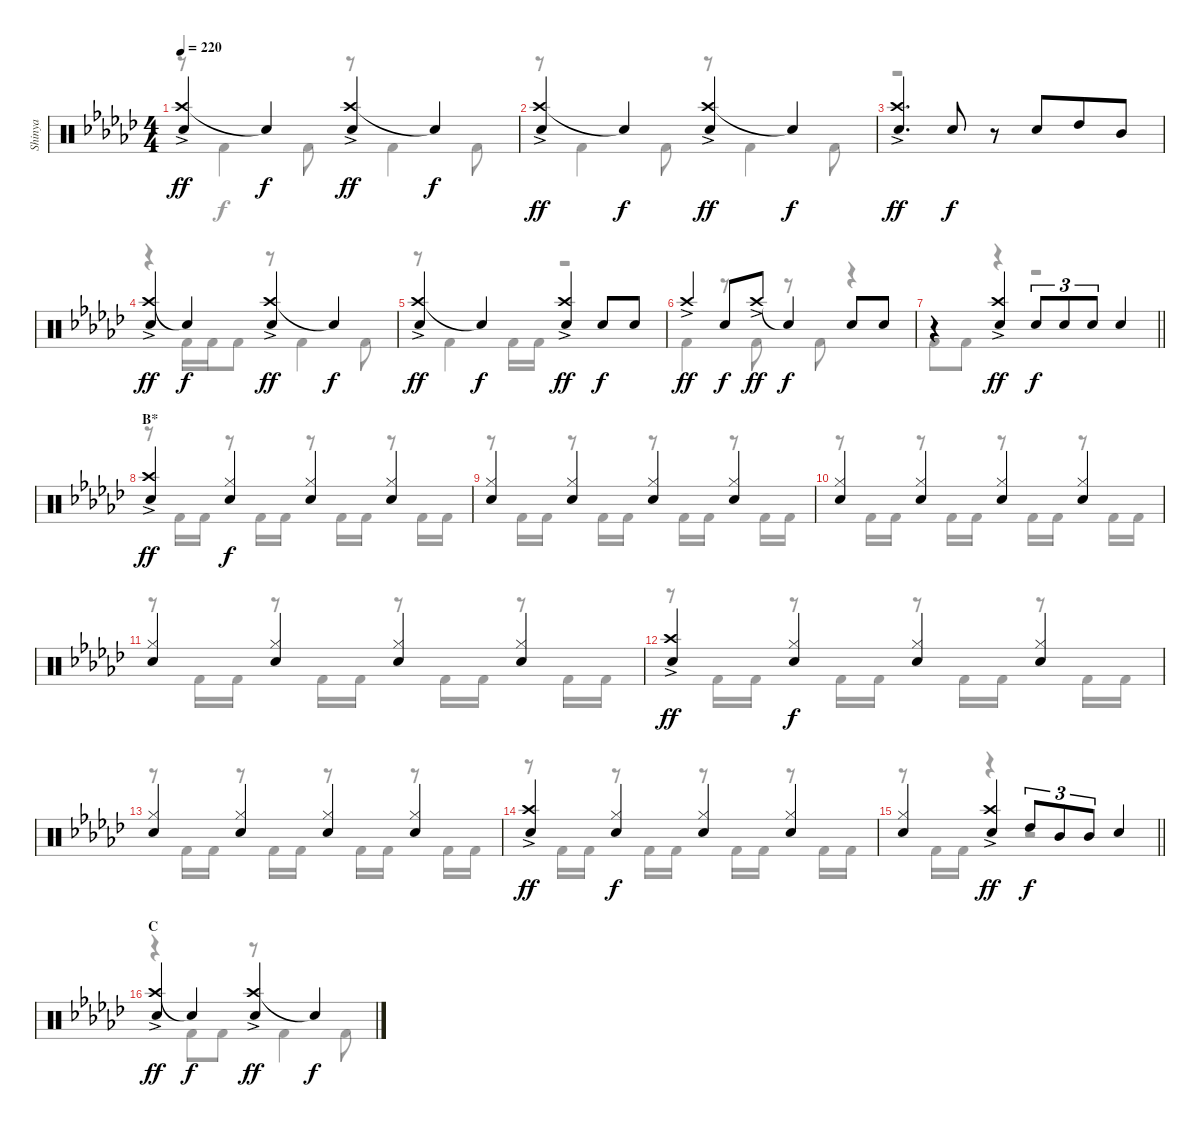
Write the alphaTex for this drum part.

\track ("Shinya" "Shinya") {instrument percussion}
\staff {score}
\articulation defaults
\voice
\ts (4 4)
\tempo 220
\clef neutral
\ks ebminor
("Crash high (hit)"{ac} "Snare (hit) 2").4{dy ff} "Snare (hit)"{t}.4{dy f} ("Crash high (hit)"{ac} "Snare (hit) 2").4{dy ff} "Snare (hit)"{t}.4{dy f} |
("Crash high (hit)"{ac} "Snare (hit) 2").4{dy ff} "Snare (hit)"{t}.4{dy f} ("Crash high (hit)"{ac} "Snare (hit) 2").4{dy ff} "Snare (hit)"{t}.4{dy f} |
("Crash high (hit)"{ac} "Snare (hit) 2").4{d dy ff} "Snare (hit) 2".8{dy f} r.8 "Snare (hit) 2".8{beam merge} "High Tom (hit)".8 "Mid Tom (hit)".8 |
("Crash high (hit)"{ac} "Snare (hit) 2").4{dy ff} "Snare (hit)"{t}.4{dy f} ("Crash high (hit)"{ac} "Snare (hit) 2").4{dy ff} "Snare (hit)"{t}.4{dy f} |
("Crash high (hit)"{ac} "Snare (hit) 2").4{dy ff} "Snare (hit)"{t}.4{dy f} ("Crash high (hit)"{ac} "Snare (hit) 2").4{dy ff} "Snare (hit) 2".8{dy f} "Snare (hit) 2".8 |
"Crash high (hit)"{ac}.4{dy ff} "Snare (hit) 2".8{dy f} "Crash high (hit)"{ac}.8{dy ff} "Snare (hit)"{t}.4{dy f} "Snare (hit) 2".8 "Snare (hit) 2".8 |
\barLineRight lightlight
r.4 ("Crash high (hit)"{ac} "Snare (hit) 2").4{dy ff} "Snare (hit) 2".8{tu (3 2) dy f} "Snare (hit) 2".8{tu (3 2)} "Snare (hit) 2".8{tu (3 2)} "Snare (hit) 2".4 |
\section ("" "B*")
("Crash high (hit)"{ac} "Snare (hit) 2").4{dy ff} ("Hi-Hat (closed)" "Snare (hit) 2").4{dy f} ("Hi-Hat (closed)" "Snare (hit) 2").4 ("Hi-Hat (closed)" "Snare (hit) 2").4 |
("Hi-Hat (closed)" "Snare (hit) 2").4 ("Hi-Hat (closed)" "Snare (hit) 2").4 ("Hi-Hat (closed)" "Snare (hit) 2").4 ("Hi-Hat (closed)" "Snare (hit) 2").4 |
("Hi-Hat (closed)" "Snare (hit) 2").4 ("Hi-Hat (closed)" "Snare (hit) 2").4 ("Hi-Hat (closed)" "Snare (hit) 2").4 ("Hi-Hat (closed)" "Snare (hit) 2").4 |
("Hi-Hat (closed)" "Snare (hit) 2").4 ("Hi-Hat (closed)" "Snare (hit) 2").4 ("Hi-Hat (closed)" "Snare (hit) 2").4 ("Hi-Hat (closed)" "Snare (hit) 2").4 |
("Crash high (hit)"{ac} "Snare (hit) 2").4{dy ff} ("Hi-Hat (closed)" "Snare (hit) 2").4{dy f} ("Hi-Hat (closed)" "Snare (hit) 2").4 ("Hi-Hat (closed)" "Snare (hit) 2").4 |
("Hi-Hat (closed)" "Snare (hit) 2").4 ("Hi-Hat (closed)" "Snare (hit) 2").4 ("Hi-Hat (closed)" "Snare (hit) 2").4 ("Hi-Hat (closed)" "Snare (hit) 2").4 |
("Crash high (hit)"{ac} "Snare (hit) 2").4{dy ff} ("Hi-Hat (closed)" "Snare (hit) 2").4{dy f} ("Hi-Hat (closed)" "Snare (hit) 2").4 ("Hi-Hat (closed)" "Snare (hit) 2").4 |
\barLineRight lightlight
("Hi-Hat (closed)" "Snare (hit) 2").4 ("Crash high (hit)"{ac} "Snare (hit) 2").4{dy ff} "High Tom (hit)".8{tu (3 2) dy f} "Mid Tom (hit)".8{tu (3 2)} "Mid Tom (hit)".8{tu (3 2)} "Snare (hit) 2".4 |
\section ("" "C")
("Crash high (hit)"{ac} "Snare (hit) 2").4{dy ff} "Snare (hit)"{t}.4{dy f} ("Crash high (hit)"{ac} "Snare (hit) 2").4{dy ff} "Snare (hit)"{t}.4{dy f}
\voice
\clef neutral
\ottava regular
\simile none
\ks ebminor
r.8{dy f} "Kick (hit) 2".4 "Kick (hit) 2".8 r.8 "Kick (hit) 2".4 "Kick (hit) 2".8 |
r.8 "Kick (hit) 2".4 "Kick (hit) 2".8 r.8 "Kick (hit) 2".4 "Kick (hit) 2".8 |
r.1 |
r.4 "Kick (hit) 2".16 "Kick (hit) 2".16 "Kick (hit) 2".8 r.8 "Kick (hit) 2".4 "Kick (hit) 2".8 |
r.8 "Kick (hit) 2".4 "Kick (hit) 2".16 "Kick (hit) 2".16 r.2 |
"Kick (hit) 2".4 r.8 "Kick (hit) 2".8 r.8 "Kick (hit) 2".8 r.4 |
\barLineRight lightlight "Kick (hit) 2".8 "Kick (hit) 2".8
r.4 r.2 |
r.8 "Kick (hit) 2".16 "Kick (hit) 2".16 r.8 "Kick (hit) 2".16 "Kick (hit) 2".16 r.8 "Kick (hit) 2".16 "Kick (hit) 2".16 r.8 "Kick (hit) 2".16 "Kick (hit) 2".16 |
r.8 "Kick (hit) 2".16 "Kick (hit) 2".16 r.8 "Kick (hit) 2".16 "Kick (hit) 2".16 r.8 "Kick (hit) 2".16 "Kick (hit) 2".16 r.8 "Kick (hit) 2".16 "Kick (hit) 2".16 |
r.8 "Kick (hit) 2".16 "Kick (hit) 2".16 r.8 "Kick (hit) 2".16 "Kick (hit) 2".16 r.8 "Kick (hit) 2".16 "Kick (hit) 2".16 r.8 "Kick (hit) 2".16 "Kick (hit) 2".16 |
r.8 "Kick (hit) 2".16 "Kick (hit) 2".16 r.8 "Kick (hit) 2".16 "Kick (hit) 2".16 r.8 "Kick (hit) 2".16 "Kick (hit) 2".16 r.8 "Kick (hit) 2".16 "Kick (hit) 2".16 |
r.8 "Kick (hit) 2".16 "Kick (hit) 2".16 r.8 "Kick (hit) 2".16 "Kick (hit) 2".16 r.8 "Kick (hit) 2".16 "Kick (hit) 2".16 r.8 "Kick (hit) 2".16 "Kick (hit) 2".16 |
r.8 "Kick (hit) 2".16 "Kick (hit) 2".16 r.8 "Kick (hit) 2".16 "Kick (hit) 2".16 r.8 "Kick (hit) 2".16 "Kick (hit) 2".16 r.8 "Kick (hit) 2".16 "Kick (hit) 2".16 |
r.8 "Kick (hit) 2".16 "Kick (hit) 2".16 r.8 "Kick (hit) 2".16 "Kick (hit) 2".16 r.8 "Kick (hit) 2".16 "Kick (hit) 2".16 r.8 "Kick (hit) 2".16 "Kick (hit) 2".16 |
\barLineRight lightlight
r.8 "Kick (hit) 2".16 "Kick (hit) 2".16 r.4 r.2 |
r.4 "Kick (hit) 2".8 "Kick (hit) 2".8 r.8 "Kick (hit) 2".4 "Kick (hit) 2".8
